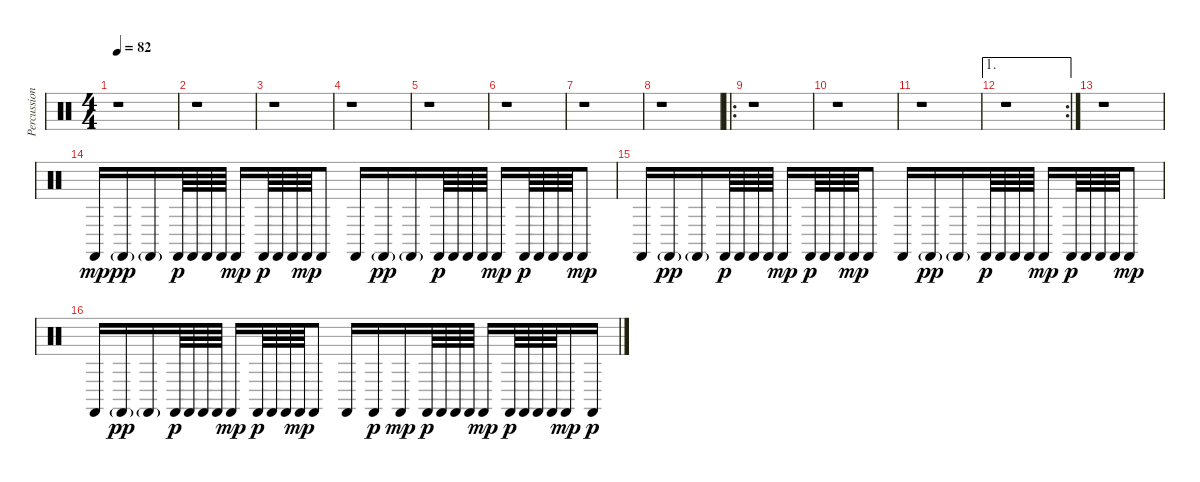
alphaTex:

\track ("Percussion" "Percussion") {instrument percussion}
\staff {score}
\articulation defaults
\ts (4 4)
\tempo 82
\clef neutral
\ks c
r.1{dy mp} |
r.1 |
r.1 |
r.1 |
r.1 |
r.1 |
r.1 |
r.1 |
\ro
r.1 |
r.1 |
r.1 |
\ae 1
\rc 2
r.1 |
r.1 |
"Castanets (hit)".16 "Castanets (hit)"{g}.16{dy pp} "Castanets (hit)"{g}.16 "Castanets (hit)".64{dy p} "Castanets (hit)".64 "Castanets (hit)".64 "Castanets (hit)".64 "Castanets (hit)".16{dy mp} "Castanets (hit)".64{dy p} "Castanets (hit)".64 "Castanets (hit)".64 "Castanets (hit)".64{dy mp} "Castanets (hit)".8 "Castanets (hit)".16 "Castanets (hit)"{g}.16{dy pp} "Castanets (hit)"{g}.16 "Castanets (hit)".64{dy p} "Castanets (hit)".64 "Castanets (hit)".64 "Castanets (hit)".64 "Castanets (hit)".16{dy mp} "Castanets (hit)".64{dy p} "Castanets (hit)".64 "Castanets (hit)".64 "Castanets (hit)".64 "Castanets (hit)".8{dy mp} |
"Castanets (hit)".16 "Castanets (hit)"{g}.16{dy pp} "Castanets (hit)"{g}.16 "Castanets (hit)".64{dy p} "Castanets (hit)".64 "Castanets (hit)".64 "Castanets (hit)".64 "Castanets (hit)".16{dy mp} "Castanets (hit)".64{dy p} "Castanets (hit)".64 "Castanets (hit)".64 "Castanets (hit)".64{dy mp} "Castanets (hit)".8 "Castanets (hit)".16 "Castanets (hit)"{g}.16{dy pp} "Castanets (hit)"{g}.16 "Castanets (hit)".64{dy p} "Castanets (hit)".64 "Castanets (hit)".64 "Castanets (hit)".64 "Castanets (hit)".16{dy mp} "Castanets (hit)".64{dy p} "Castanets (hit)".64 "Castanets (hit)".64 "Castanets (hit)".64 "Castanets (hit)".8{dy mp} |
"Castanets (hit)".16 "Castanets (hit)"{g}.16{dy pp} "Castanets (hit)"{g}.16 "Castanets (hit)".64{dy p} "Castanets (hit)".64 "Castanets (hit)".64 "Castanets (hit)".64 "Castanets (hit)".16{dy mp} "Castanets (hit)".64{dy p} "Castanets (hit)".64 "Castanets (hit)".64 "Castanets (hit)".64{dy mp} "Castanets (hit)".8 "Castanets (hit)".16 "Castanets (hit)".16{dy p} "Castanets (hit)".16{dy mp} "Castanets (hit)".64{dy p} "Castanets (hit)".64 "Castanets (hit)".64 "Castanets (hit)".64 "Castanets (hit)".16{dy mp} "Castanets (hit)".64{dy p} "Castanets (hit)".64 "Castanets (hit)".64 "Castanets (hit)".64 "Castanets (hit)".16{dy mp} "Castanets (hit)".16{dy p}
